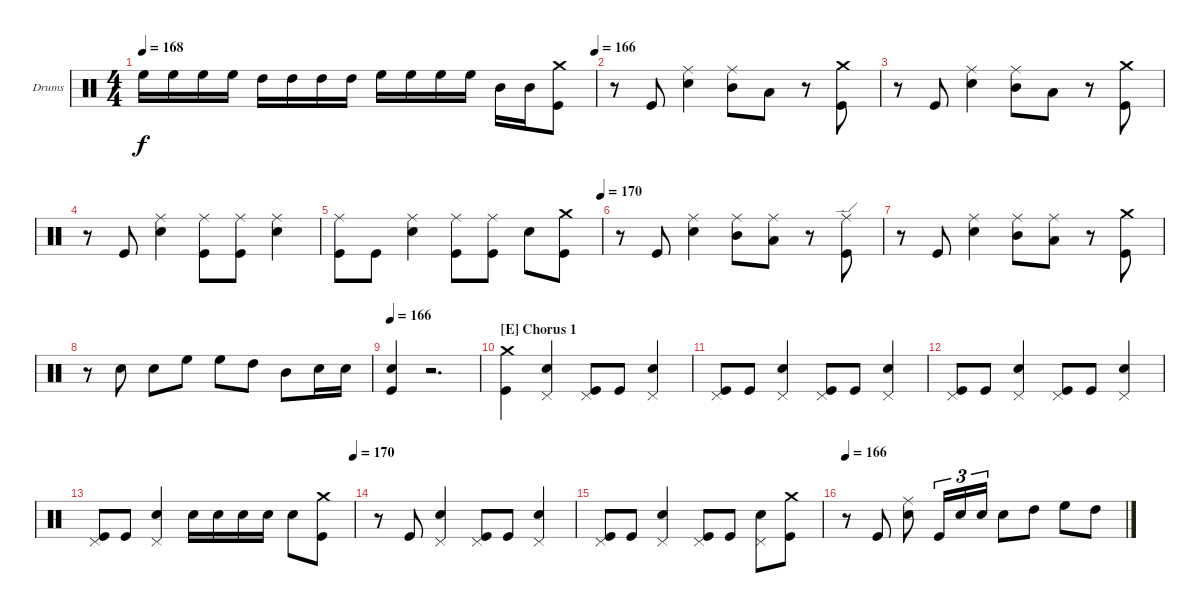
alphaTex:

\bracketExtendMode groupsimilarinstruments
\firstSystemTrackNameOrientation horizontal
\otherSystemsTrackNameOrientation horizontal
\track ("Vinny Appice" "Drums") {instrument percussion}
\staff {score}
\articulation defaults
\ts (4 4)
\tempo 168
\tempo (166 1)
\clef neutral
\ks c "High Floor Tom (hit)".16{dy f} "High Floor Tom (hit)".16 "High Floor Tom (hit)".16 "High Floor Tom (hit)".16 "High Tom (hit)".16 "High Tom (hit)".16 "High Tom (hit)".16 "High Tom (hit)".16 "High Floor Tom (hit)".16 "High Floor Tom (hit)".16 "High Floor Tom (hit)".16 "High Floor Tom (hit)".16 "Mid Tom (hit)".16 "Mid Tom (hit)".16
("Crash medium (hit)" "Kick (hit)").8 |
r.8 "Kick (hit)".8 ("Ride (middle)" "Snare (hit) 2").4 ("Ride (middle)" "Mid Tom (hit)").8 "Low Tom (hit)".8 r.8 ("Crash medium (hit)" "Kick (hit)").8 |
r.8 "Kick (hit)".8 ("Ride (middle)" "Snare (hit) 2").4 ("Ride (middle)" "Mid Tom (hit)").8 "Low Tom (hit)".8 r.8 ("Crash medium (hit)" "Kick (hit)").8 |
r.8 "Kick (hit)".8 ("Ride (middle)" "Snare (hit) 2").4 ("Ride (middle)" "Kick (hit)").8 ("Ride (middle)" "Kick (hit)").8 ("Ride (middle)" "Snare (hit) 2").4 |
\tempo (170 1)
("Ride (middle)" "Kick (hit)").8 "Kick (hit)".8 ("Ride (middle)" "Snare (hit) 2").4 ("Ride (middle)" "Kick (hit)").8 ("Ride (middle)" "Kick (hit)").8 "Snare (hit) 2".8 ("Crash medium (hit)" "Kick (hit)").8 |
r.8 "Kick (hit)".8 ("Ride (middle)" "Snare (hit) 2").4 ("Ride (middle)" "Mid Tom (hit)").8 ("Ride (middle)" "Low Tom (hit)").8 r.8 ("Ride (edge)" "Kick (hit)").8 |
r.8 "Kick (hit)".8 ("Ride (middle)" "Snare (hit) 2").4 ("Ride (middle)" "Mid Tom (hit)").8 ("Ride (middle)" "Low Tom (hit)").8 r.8 ("Crash medium (hit)" "Kick (hit)").8 |
r.8 "Snare (hit) 2".8 "Snare (hit) 2".8 "High Floor Tom (hit)".8 "High Floor Tom (hit)".8 "High Tom (hit)".8 "Mid Tom (hit)".8 "Snare (hit) 2".16 "Snare (hit) 2".16 |
\tempo 166
("Snare (hit) 2" "Kick (hit)").4 r.2{d} |
\section ("E" "Chorus 1")
("Crash medium (hit)" "Kick (hit)").4 ("Pedal Hi-Hat (hit)" "Snare (hit) 2").4 ("Pedal Hi-Hat (hit)" "Kick (hit)").8 "Kick (hit)".8 ("Pedal Hi-Hat (hit)" "Snare (hit) 2").4 |
("Pedal Hi-Hat (hit)" "Kick (hit)").8 "Kick (hit)".8 ("Pedal Hi-Hat (hit)" "Snare (hit) 2").4 ("Pedal Hi-Hat (hit)" "Kick (hit)").8 "Kick (hit)".8 ("Pedal Hi-Hat (hit)" "Snare (hit) 2").4 |
("Pedal Hi-Hat (hit)" "Kick (hit)").8 "Kick (hit)".8 ("Pedal Hi-Hat (hit)" "Snare (hit) 2").4 ("Pedal Hi-Hat (hit)" "Kick (hit)").8 "Kick (hit)".8 ("Pedal Hi-Hat (hit)" "Snare (hit) 2").4 |
\tempo (170 1)
("Pedal Hi-Hat (hit)" "Kick (hit)").8 "Kick (hit)".8 ("Pedal Hi-Hat (hit)" "Snare (hit) 2").4 "Snare (hit) 2".16 "Snare (hit) 2".16 "Snare (hit) 2".16 "Snare (hit) 2".16 "Snare (hit) 2".8 ("Crash medium (hit)" "Kick (hit)").8 |
r.8 "Kick (hit)".8 ("Pedal Hi-Hat (hit)" "Snare (hit) 2").4 ("Pedal Hi-Hat (hit)" "Kick (hit)").8 "Kick (hit)".8 ("Pedal Hi-Hat (hit)" "Snare (hit) 2").4 |
("Pedal Hi-Hat (hit)" "Kick (hit)").8 "Kick (hit)".8 ("Pedal Hi-Hat (hit)" "Snare (hit) 2").4 ("Pedal Hi-Hat (hit)" "Kick (hit)").8 "Kick (hit)".8 ("Pedal Hi-Hat (hit)" "Snare (hit) 2").8 ("Crash medium (hit)" "Kick (hit)").8 |
\tempo 166
r.8 "Kick (hit)".8 ("Snare (hit) 2" "Ride (middle)").8 "Kick (hit)".16{tu (3 2)} "Snare (hit) 2".16{tu (3 2)} "Snare (hit) 2".16{tu (3 2)} "Snare (hit) 2".8 "High Tom (hit)".8 "High Floor Tom (hit)".8 "High Tom (hit)".8
